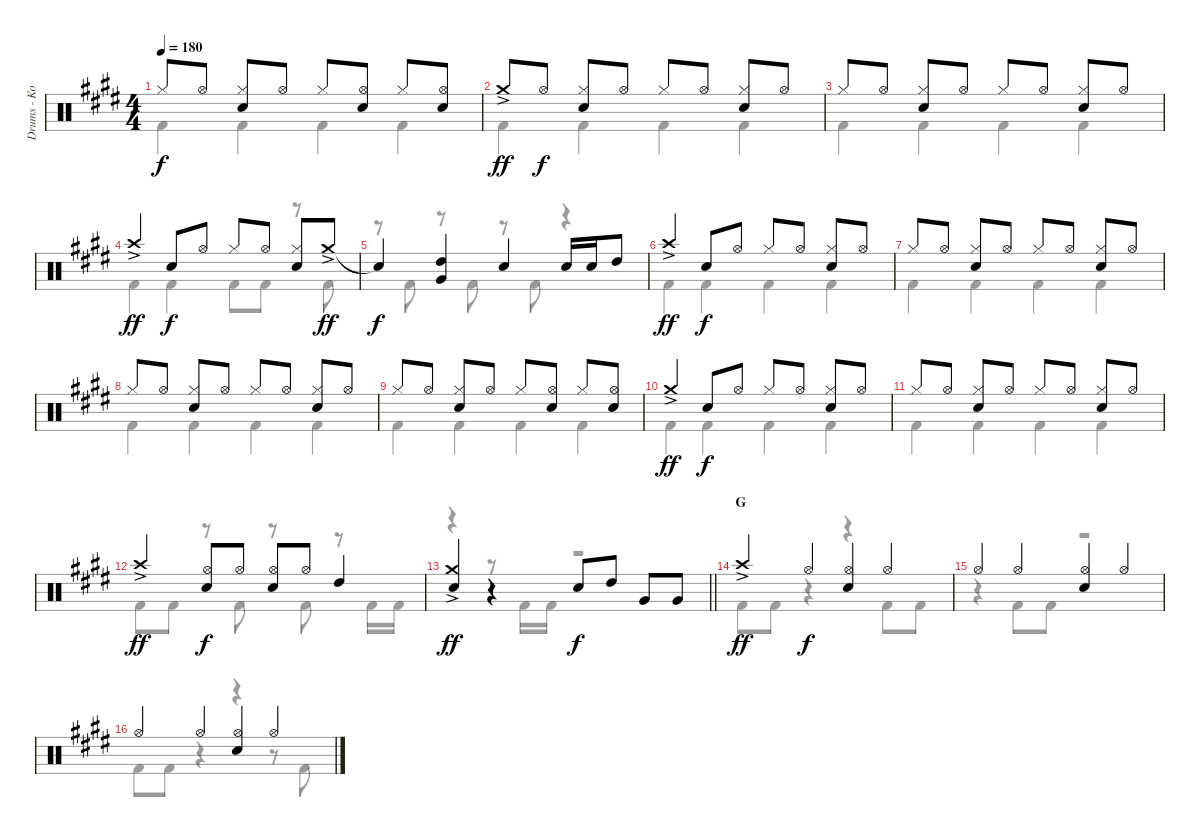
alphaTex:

\track ("Drums - Ko-Ki" "Drums - Ko") {instrument percussion}
\staff {score}
\articulation defaults
\voice
\ts (4 4)
\tempo 180
\clef neutral
\ks e "Hi-Hat (closed)".8{dy f} "Hi-Hat (open)".8
("Hi-Hat (closed)" "Snare (hit) 2").8 "Hi-Hat (open)".8 "Hi-Hat (closed)".8 ("Hi-Hat (open)" "Snare (hit) 2").8 "Hi-Hat (closed)".8 ("Hi-Hat (open)" "Snare (hit) 2").8 |
"Crash medium (hit)"{ac}.8{dy ff} "Hi-Hat (open)".8{dy f} ("Hi-Hat (closed)" "Snare (hit) 2").8 "Hi-Hat (open)".8 "Hi-Hat (closed)".8 "Hi-Hat (open)".8 ("Hi-Hat (closed)" "Snare (hit) 2").8 "Hi-Hat (open)".8 |
"Hi-Hat (closed)".8 "Hi-Hat (open)".8 ("Hi-Hat (closed)" "Snare (hit) 2").8 "Hi-Hat (open)".8 "Hi-Hat (closed)".8 "Hi-Hat (open)".8 ("Hi-Hat (closed)" "Snare (hit) 2").8 "Hi-Hat (open)".8 |
"Crash high (hit)"{ac}.4{dy ff} "Snare (hit) 2".8{dy f} "Hi-Hat (open)".8 "Hi-Hat (closed)".8 "Hi-Hat (open)".8 ("Hi-Hat (closed)" "Snare (hit) 2").8 "Crash medium (hit)"{ac}.8{dy ff} |
"Snare (hit)"{t}.4{dy f} ("High Tom (hit)" "Very Low Tom (hit)").4 "Snare (hit) 2".4 "Snare (hit) 2".16 "Snare (hit) 2".16 "High Tom (hit)".8 |
"Crash high (hit)"{ac}.4{dy ff} "Snare (hit) 2".8{dy f} "Hi-Hat (open)".8 "Hi-Hat (closed)".8 "Hi-Hat (open)".8 ("Hi-Hat (closed)" "Snare (hit) 2").8 "Hi-Hat (open)".8 |
"Hi-Hat (closed)".8 "Hi-Hat (open)".8 ("Hi-Hat (closed)" "Snare (hit) 2").8 "Hi-Hat (open)".8 "Hi-Hat (closed)".8 "Hi-Hat (open)".8 ("Hi-Hat (closed)" "Snare (hit) 2").8 "Hi-Hat (open)".8 |
"Hi-Hat (closed)".8 "Hi-Hat (open)".8 ("Hi-Hat (closed)" "Snare (hit) 2").8 "Hi-Hat (open)".8 "Hi-Hat (closed)".8 "Hi-Hat (open)".8 ("Hi-Hat (closed)" "Snare (hit) 2").8 "Hi-Hat (open)".8 |
"Hi-Hat (closed)".8 "Hi-Hat (open)".8 ("Hi-Hat (closed)" "Snare (hit) 2").8 "Hi-Hat (open)".8 "Hi-Hat (closed)".8 ("Hi-Hat (open)" "Snare (hit) 2").8 "Hi-Hat (closed)".8 ("Hi-Hat (open)" "Snare (hit) 2").8 |
"Crash medium (hit)"{ac}.4{dy ff} "Snare (hit) 2".8{dy f} "Hi-Hat (open)".8 "Hi-Hat (closed)".8 "Hi-Hat (open)".8 ("Hi-Hat (closed)" "Snare (hit) 2").8 "Hi-Hat (open)".8 |
"Hi-Hat (closed)".8 "Hi-Hat (open)".8 ("Hi-Hat (closed)" "Snare (hit) 2").8 "Hi-Hat (open)".8 "Hi-Hat (closed)".8 "Hi-Hat (open)".8 ("Hi-Hat (closed)" "Snare (hit) 2").8 "Hi-Hat (open)".8 |
"Crash high (hit)"{ac}.4{dy ff} ("Hi-Hat (open)" "Snare (hit) 2").8{dy f} "Hi-Hat (open)".8 ("Hi-Hat (open)" "Snare (hit) 2").8 "Hi-Hat (open)".8 "High Tom (hit)".4 |
\barLineRight lightlight
("Crash medium (hit)"{ac} "Snare (hit) 2").4{dy ff} r.4 "Snare (hit) 2".8{dy f} "High Tom (hit)".8 "Very Low Tom (hit)".8 "Very Low Tom (hit)".8 |
\section ("" "G")
"Crash high (hit)"{ac}.4{dy ff} "Hi-Hat (open)".4{dy f} ("Hi-Hat (open)" "Snare (hit) 2").4 "Hi-Hat (open)".4 |
"Hi-Hat (open)".4 "Hi-Hat (open)".4 ("Hi-Hat (open)" "Snare (hit) 2").4 "Hi-Hat (open)".4 |
"Hi-Hat (open)".4 "Hi-Hat (open)".4 ("Hi-Hat (open)" "Snare (hit) 2").4 "Hi-Hat (open)".4
\voice
\clef neutral
\ottava regular
\simile none
\ks e "Kick (hit) 2".4{dy f} "Kick (hit) 2".4 "Kick (hit) 2".4 "Kick (hit) 2".4
|
"Kick (hit) 2".4 "Kick (hit) 2".4 "Kick (hit) 2".4 "Kick (hit) 2".4 |
"Kick (hit) 2".4 "Kick (hit) 2".4 "Kick (hit) 2".4 "Kick (hit) 2".4 |
"Kick (hit) 2".4 "Kick (hit) 2".4 "Kick (hit) 2".8 "Kick (hit) 2".8 r.8 "Kick (hit) 2".8 |
r.8 "Kick (hit) 2".8 r.8 "Kick (hit) 2".8 r.8 "Kick (hit) 2".8 r.4 |
"Kick (hit) 2".4 "Kick (hit) 2".4 "Kick (hit) 2".4 "Kick (hit) 2".4 |
"Kick (hit) 2".4 "Kick (hit) 2".4 "Kick (hit) 2".4 "Kick (hit) 2".4 |
"Kick (hit) 2".4 "Kick (hit) 2".4 "Kick (hit) 2".4 "Kick (hit) 2".4 |
"Kick (hit) 2".4 "Kick (hit) 2".4 "Kick (hit) 2".4 "Kick (hit) 2".4 |
"Kick (hit) 2".4 "Kick (hit) 2".4 "Kick (hit) 2".4 "Kick (hit) 2".4 |
"Kick (hit) 2".4 "Kick (hit) 2".4 "Kick (hit) 2".4 "Kick (hit) 2".4 |
"Kick (hit) 2".8 "Kick (hit) 2".8 r.8 "Kick (hit) 2".8 r.8 "Kick (hit) 2".8 r.8 "Kick (hit) 2".16 "Kick (hit) 2".16 |
\barLineRight lightlight
r.4 r.8 "Kick (hit) 2".16 "Kick (hit) 2".16 r.2 |
"Kick (hit) 2".8 "Kick (hit) 2".8 r.4 r.4 "Kick (hit) 2".8 "Kick (hit) 2".8 |
r.4 "Kick (hit) 2".8 "Kick (hit) 2".8 r.2 |
"Kick (hit) 2".8 "Kick (hit) 2".8 r.4 r.4 r.8 "Kick (hit) 2".8
